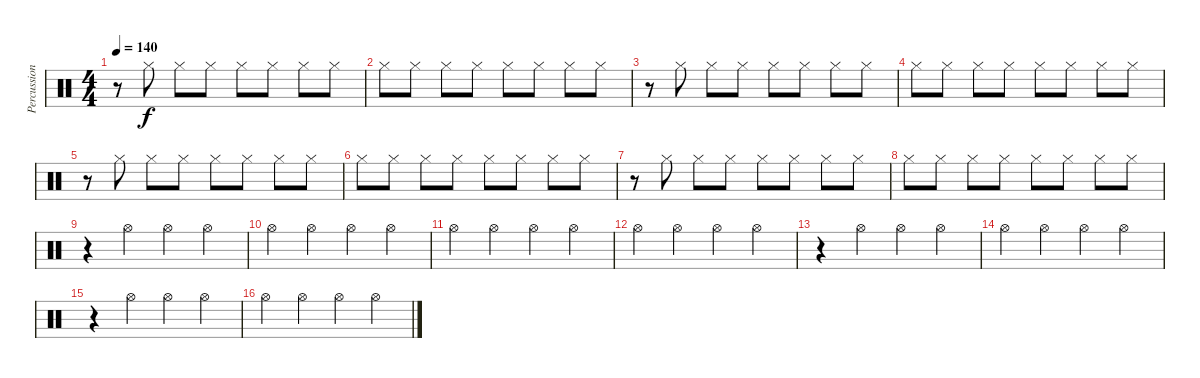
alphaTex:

\track ("Percussion" "Percussion") {instrument percussion}
\staff {score}
\articulation defaults
\ts (4 4)
\tempo 140
\clef neutral
\ks c
r.8{dy f} "Hi-Hat (closed)".8 "Hi-Hat (closed)".8 "Hi-Hat (closed)".8 "Hi-Hat (closed)".8 "Hi-Hat (closed)".8 "Hi-Hat (closed)".8 "Hi-Hat (closed)".8 |
"Hi-Hat (closed)".8 "Hi-Hat (closed)".8 "Hi-Hat (closed)".8 "Hi-Hat (closed)".8 "Hi-Hat (closed)".8 "Hi-Hat (closed)".8 "Hi-Hat (closed)".8 "Hi-Hat (closed)".8 |
r.8 "Hi-Hat (closed)".8 "Hi-Hat (closed)".8 "Hi-Hat (closed)".8 "Hi-Hat (closed)".8 "Hi-Hat (closed)".8 "Hi-Hat (closed)".8 "Hi-Hat (closed)".8 |
"Hi-Hat (closed)".8 "Hi-Hat (closed)".8 "Hi-Hat (closed)".8 "Hi-Hat (closed)".8 "Hi-Hat (closed)".8 "Hi-Hat (closed)".8 "Hi-Hat (closed)".8 "Hi-Hat (closed)".8 |
r.8 "Hi-Hat (closed)".8 "Hi-Hat (closed)".8 "Hi-Hat (closed)".8 "Hi-Hat (closed)".8 "Hi-Hat (closed)".8 "Hi-Hat (closed)".8 "Hi-Hat (closed)".8 |
"Hi-Hat (closed)".8 "Hi-Hat (closed)".8 "Hi-Hat (closed)".8 "Hi-Hat (closed)".8 "Hi-Hat (closed)".8 "Hi-Hat (closed)".8 "Hi-Hat (closed)".8 "Hi-Hat (closed)".8 |
r.8 "Hi-Hat (closed)".8 "Hi-Hat (closed)".8 "Hi-Hat (closed)".8 "Hi-Hat (closed)".8 "Hi-Hat (closed)".8 "Hi-Hat (closed)".8 "Hi-Hat (closed)".8 |
"Hi-Hat (closed)".8 "Hi-Hat (closed)".8 "Hi-Hat (closed)".8 "Hi-Hat (closed)".8 "Hi-Hat (closed)".8 "Hi-Hat (closed)".8 "Hi-Hat (closed)".8 "Hi-Hat (closed)".8 |
r.4 "Hi-Hat (open)".4 "Hi-Hat (open)".4 "Hi-Hat (open)".4 |
"Hi-Hat (open)".4 "Hi-Hat (open)".4 "Hi-Hat (open)".4 "Hi-Hat (open)".4 |
"Hi-Hat (open)".4 "Hi-Hat (open)".4 "Hi-Hat (open)".4 "Hi-Hat (open)".4 |
"Hi-Hat (open)".4 "Hi-Hat (open)".4 "Hi-Hat (open)".4 "Hi-Hat (open)".4 |
r.4 "Hi-Hat (open)".4 "Hi-Hat (open)".4 "Hi-Hat (open)".4 |
"Hi-Hat (open)".4 "Hi-Hat (open)".4 "Hi-Hat (open)".4 "Hi-Hat (open)".4 |
r.4 "Hi-Hat (open)".4 "Hi-Hat (open)".4 "Hi-Hat (open)".4 |
"Hi-Hat (open)".4 "Hi-Hat (open)".4 "Hi-Hat (open)".4 "Hi-Hat (open)".4
